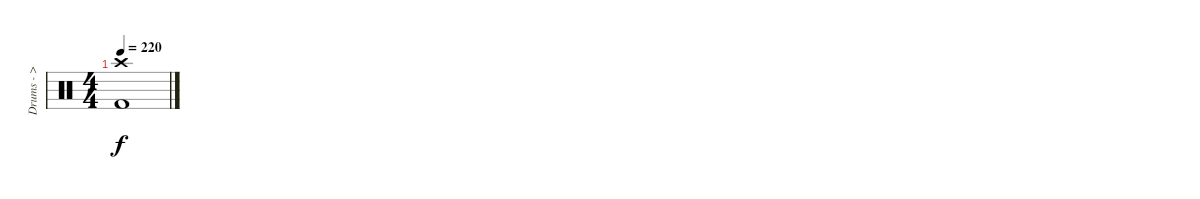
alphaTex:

\track ("Drums - > Nicholas" "Drums - > ") {instrument percussion}
\staff {score}
\articulation defaults
\ts (4 4)
\tempo 220
\clef neutral
\ks c
("Kick (hit) 2" "Crash high (hit)").1{dy f}
